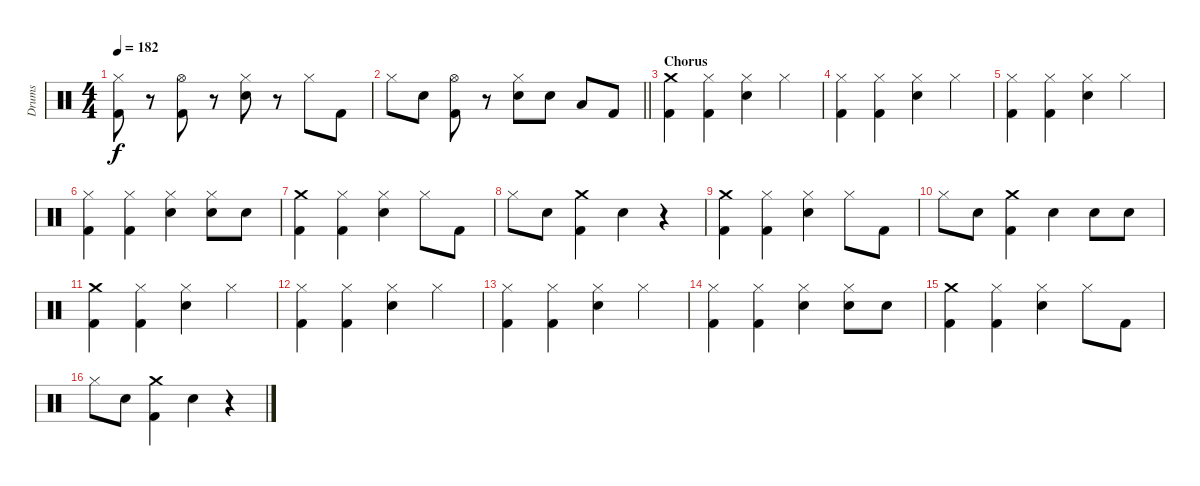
\track ("Drums" "Drums") {instrument percussion}
\staff {score}
\articulation defaults
\ts (4 4)
\tempo 182
\clef neutral
\ks c
("Hi-Hat (closed)" "Kick (hit) 2").8{dy f} r.8 ("Hi-Hat (open)" "Kick (hit) 2").8 r.8 ("Hi-Hat (closed)" "Snare (hit) 2").8 r.8 "Hi-Hat (closed)".8 "Kick (hit) 2".8 |
\barLineRight lightlight "Hi-Hat (closed)".8 "Snare (hit) 2".8
("Hi-Hat (open)" "Kick (hit) 2").8 r.8 ("Hi-Hat (closed)" "Snare (hit) 2").8 "Snare (hit) 2".8 "Low Tom (hit)".8 "Kick (hit) 2".8 |
\section ("" "Chorus")
("Crash medium (hit)" "Kick (hit) 2").4 ("Hi-Hat (closed)" "Kick (hit) 2").4 ("Hi-Hat (closed)" "Snare (hit) 2").4 "Hi-Hat (closed)".4 |
("Hi-Hat (closed)" "Kick (hit) 2").4 ("Hi-Hat (closed)" "Kick (hit) 2").4 ("Hi-Hat (closed)" "Snare (hit) 2").4 "Hi-Hat (closed)".4 |
("Hi-Hat (closed)" "Kick (hit) 2").4 ("Hi-Hat (closed)" "Kick (hit) 2").4 ("Hi-Hat (closed)" "Snare (hit) 2").4 "Hi-Hat (closed)".4 |
("Hi-Hat (closed)" "Kick (hit) 2").4 ("Hi-Hat (closed)" "Kick (hit) 2").4 ("Hi-Hat (closed)" "Snare (hit) 2").4 ("Hi-Hat (closed)" "Snare (hit) 2").8 "Snare (hit) 2".8 |
("Crash medium (hit)" "Kick (hit) 2").4 ("Hi-Hat (closed)" "Kick (hit) 2").4 ("Hi-Hat (closed)" "Snare (hit) 2").4 "Hi-Hat (closed)".8 "Kick (hit) 2".8 |
"Hi-Hat (closed)".8 "Snare (hit) 2".8 ("Crash medium (hit)" "Kick (hit) 2").4 "Snare (hit) 2".4 r.4 |
("Crash medium (hit)" "Kick (hit) 2").4 ("Hi-Hat (closed)" "Kick (hit) 2").4 ("Hi-Hat (closed)" "Snare (hit) 2").4 "Hi-Hat (closed)".8 "Kick (hit) 2".8 |
"Hi-Hat (closed)".8 "Snare (hit) 2".8 ("Crash medium (hit)" "Kick (hit) 2").4 "Snare (hit) 2".4 "Snare (hit) 2".8 "Snare (hit) 2".8 |
("Crash medium (hit)" "Kick (hit) 2").4 ("Hi-Hat (closed)" "Kick (hit) 2").4 ("Hi-Hat (closed)" "Snare (hit) 2").4 "Hi-Hat (closed)".4 |
("Hi-Hat (closed)" "Kick (hit) 2").4 ("Hi-Hat (closed)" "Kick (hit) 2").4 ("Hi-Hat (closed)" "Snare (hit) 2").4 "Hi-Hat (closed)".4 |
("Hi-Hat (closed)" "Kick (hit) 2").4 ("Hi-Hat (closed)" "Kick (hit) 2").4 ("Hi-Hat (closed)" "Snare (hit) 2").4 "Hi-Hat (closed)".4 |
("Hi-Hat (closed)" "Kick (hit) 2").4 ("Hi-Hat (closed)" "Kick (hit) 2").4 ("Hi-Hat (closed)" "Snare (hit) 2").4 ("Hi-Hat (closed)" "Snare (hit) 2").8 "Snare (hit) 2".8 |
("Crash medium (hit)" "Kick (hit) 2").4 ("Hi-Hat (closed)" "Kick (hit) 2").4 ("Hi-Hat (closed)" "Snare (hit) 2").4 "Hi-Hat (closed)".8 "Kick (hit) 2".8 |
"Hi-Hat (closed)".8 "Snare (hit) 2".8 ("Crash medium (hit)" "Kick (hit) 2").4 "Snare (hit) 2".4 r.4
